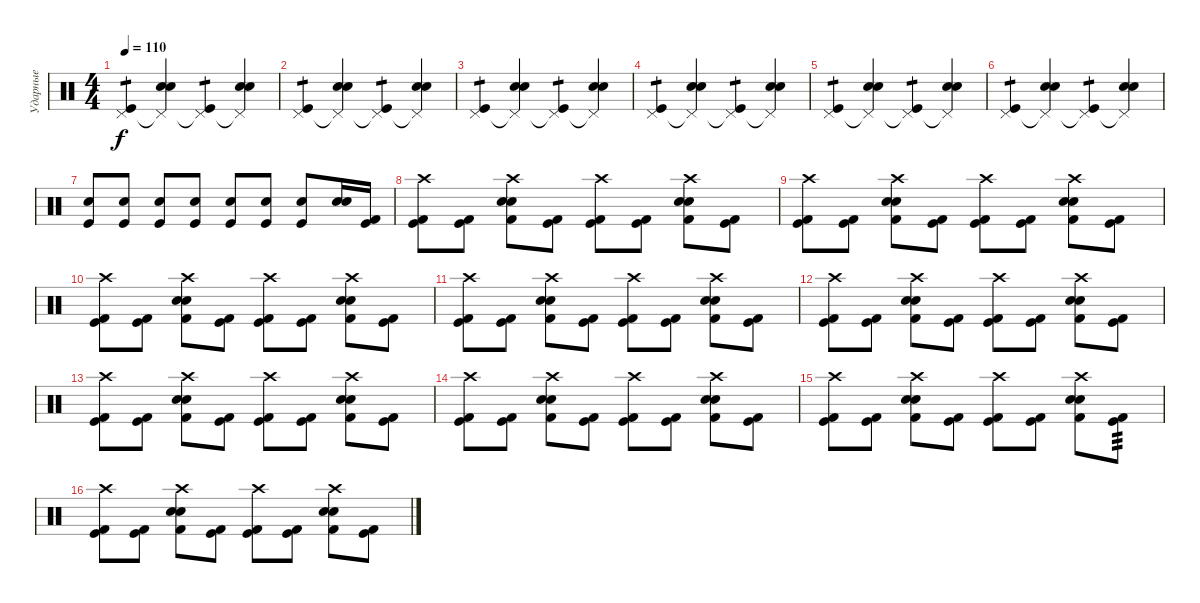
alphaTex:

\track ("Ударные" "Ударные") {instrument percussion}
\staff {score}
\articulation defaults
\ts (4 4)
\tempo 110
\clef neutral
\ks c
("Pedal Hi-Hat (hit)" "Kick (hit)").4{tp 1 dy f} ("Pedal Hi-Hat (hit)"{t} "Electric Snare (hit)" "Snare (hit) 2").4 ("Pedal Hi-Hat (hit)"{t} "Kick (hit)").4{tp 1} ("Pedal Hi-Hat (hit)"{t} "Electric Snare (hit)" "Snare (hit) 2").4 |
("Pedal Hi-Hat (hit)" "Kick (hit)").4{tp 1} ("Pedal Hi-Hat (hit)"{t} "Electric Snare (hit)" "Snare (hit) 2").4 ("Pedal Hi-Hat (hit)"{t} "Kick (hit)").4{tp 1} ("Pedal Hi-Hat (hit)"{t} "Electric Snare (hit)" "Snare (hit) 2").4 |
("Pedal Hi-Hat (hit)" "Kick (hit)").4{tp 1} ("Pedal Hi-Hat (hit)"{t} "Electric Snare (hit)" "Snare (hit) 2").4 ("Pedal Hi-Hat (hit)"{t} "Kick (hit)").4{tp 1} ("Pedal Hi-Hat (hit)"{t} "Electric Snare (hit)" "Snare (hit) 2").4 |
("Pedal Hi-Hat (hit)" "Kick (hit)").4{tp 1} ("Pedal Hi-Hat (hit)"{t} "Electric Snare (hit)" "Snare (hit) 2").4 ("Pedal Hi-Hat (hit)"{t} "Kick (hit)").4{tp 1} ("Pedal Hi-Hat (hit)"{t} "Electric Snare (hit)" "Snare (hit) 2").4 |
("Pedal Hi-Hat (hit)" "Kick (hit)").4{tp 1} ("Pedal Hi-Hat (hit)"{t} "Electric Snare (hit)" "Snare (hit) 2").4 ("Pedal Hi-Hat (hit)"{t} "Kick (hit)").4{tp 1} ("Pedal Hi-Hat (hit)"{t} "Electric Snare (hit)" "Snare (hit) 2").4 |
("Pedal Hi-Hat (hit)" "Kick (hit)").4{tp 1} ("Pedal Hi-Hat (hit)"{t} "Electric Snare (hit)" "Snare (hit) 2").4 ("Pedal Hi-Hat (hit)"{t} "Kick (hit)").4{tp 1} ("Pedal Hi-Hat (hit)"{t} "Electric Snare (hit)" "Snare (hit) 2").4 |
("Electric Snare (hit)" "Kick (hit)").8 ("Electric Snare (hit)" "Kick (hit)").8 ("Electric Snare (hit)" "Kick (hit)").8 ("Electric Snare (hit)" "Kick (hit)").8 ("Electric Snare (hit)" "Kick (hit)").8 ("Electric Snare (hit)" "Kick (hit)").8 ("Electric Snare (hit)" "Kick (hit)").8 ("Snare (hit) 2" "Electric Snare (hit)").16 ("Kick (hit) 2" "Kick (hit)").16 |
("Crash high (hit)" "Kick (hit)" "Kick (hit) 2").8 ("Kick (hit)" "Kick (hit) 2").8 ("Crash high (hit)" "Snare (hit) 2" "Electric Snare (hit)" "Kick (hit) 2").8 ("Kick (hit)" "Kick (hit) 2").8 ("Crash high (hit)" "Kick (hit)" "Kick (hit) 2").8 ("Kick (hit)" "Kick (hit) 2").8 ("Crash high (hit)" "Snare (hit) 2" "Electric Snare (hit)" "Kick (hit) 2").8 ("Kick (hit)" "Kick (hit) 2").8 |
("Crash high (hit)" "Kick (hit)" "Kick (hit) 2").8 ("Kick (hit)" "Kick (hit) 2").8 ("Crash high (hit)" "Snare (hit) 2" "Electric Snare (hit)" "Kick (hit) 2").8 ("Kick (hit)" "Kick (hit) 2").8 ("Crash high (hit)" "Kick (hit)" "Kick (hit) 2").8 ("Kick (hit)" "Kick (hit) 2").8 ("Crash high (hit)" "Snare (hit) 2" "Electric Snare (hit)" "Kick (hit) 2").8 ("Kick (hit)" "Kick (hit) 2").8 |
("Crash high (hit)" "Kick (hit)" "Kick (hit) 2").8 ("Kick (hit)" "Kick (hit) 2").8 ("Crash high (hit)" "Snare (hit) 2" "Electric Snare (hit)" "Kick (hit) 2").8 ("Kick (hit)" "Kick (hit) 2").8 ("Crash high (hit)" "Kick (hit)" "Kick (hit) 2").8 ("Kick (hit)" "Kick (hit) 2").8 ("Crash high (hit)" "Snare (hit) 2" "Electric Snare (hit)" "Kick (hit) 2").8 ("Kick (hit)" "Kick (hit) 2").8 |
("Crash high (hit)" "Kick (hit)" "Kick (hit) 2").8 ("Kick (hit)" "Kick (hit) 2").8 ("Crash high (hit)" "Snare (hit) 2" "Electric Snare (hit)" "Kick (hit) 2").8 ("Kick (hit)" "Kick (hit) 2").8 ("Crash high (hit)" "Kick (hit)" "Kick (hit) 2").8 ("Kick (hit)" "Kick (hit) 2").8 ("Crash high (hit)" "Snare (hit) 2" "Electric Snare (hit)" "Kick (hit) 2").8 ("Kick (hit)" "Kick (hit) 2").8 |
("Crash high (hit)" "Kick (hit)" "Kick (hit) 2").8 ("Kick (hit)" "Kick (hit) 2").8 ("Crash high (hit)" "Snare (hit) 2" "Electric Snare (hit)" "Kick (hit) 2").8 ("Kick (hit)" "Kick (hit) 2").8 ("Crash high (hit)" "Kick (hit)" "Kick (hit) 2").8 ("Kick (hit)" "Kick (hit) 2").8 ("Crash high (hit)" "Snare (hit) 2" "Electric Snare (hit)" "Kick (hit) 2").8 ("Kick (hit)" "Kick (hit) 2").8 |
("Crash high (hit)" "Kick (hit)" "Kick (hit) 2").8 ("Kick (hit)" "Kick (hit) 2").8 ("Crash high (hit)" "Snare (hit) 2" "Electric Snare (hit)" "Kick (hit) 2").8 ("Kick (hit)" "Kick (hit) 2").8 ("Crash high (hit)" "Kick (hit)" "Kick (hit) 2").8 ("Kick (hit)" "Kick (hit) 2").8 ("Crash high (hit)" "Snare (hit) 2" "Electric Snare (hit)" "Kick (hit) 2").8 ("Kick (hit)" "Kick (hit) 2").8 |
("Crash high (hit)" "Kick (hit)" "Kick (hit) 2").8 ("Kick (hit)" "Kick (hit) 2").8 ("Crash high (hit)" "Snare (hit) 2" "Electric Snare (hit)" "Kick (hit) 2").8 ("Kick (hit)" "Kick (hit) 2").8 ("Crash high (hit)" "Kick (hit)" "Kick (hit) 2").8 ("Kick (hit)" "Kick (hit) 2").8 ("Crash high (hit)" "Snare (hit) 2" "Electric Snare (hit)" "Kick (hit) 2").8 ("Kick (hit)" "Kick (hit) 2").8 |
("Crash high (hit)" "Kick (hit)" "Kick (hit) 2").8 ("Kick (hit)" "Kick (hit) 2").8 ("Crash high (hit)" "Snare (hit) 2" "Electric Snare (hit)" "Kick (hit) 2").8 ("Kick (hit)" "Kick (hit) 2").8 ("Crash high (hit)" "Kick (hit)" "Kick (hit) 2").8 ("Kick (hit)" "Kick (hit) 2").8 ("Crash high (hit)" "Snare (hit) 2" "Electric Snare (hit)" "Kick (hit) 2").8 ("Kick (hit)" "Kick (hit) 2").8{tp 3} |
("Crash high (hit)" "Kick (hit)" "Kick (hit) 2").8 ("Kick (hit)" "Kick (hit) 2").8 ("Crash high (hit)" "Snare (hit) 2" "Electric Snare (hit)" "Kick (hit) 2").8 ("Kick (hit)" "Kick (hit) 2").8 ("Crash high (hit)" "Kick (hit)" "Kick (hit) 2").8 ("Kick (hit)" "Kick (hit) 2").8 ("Crash high (hit)" "Snare (hit) 2" "Electric Snare (hit)" "Kick (hit) 2").8 ("Kick (hit)" "Kick (hit) 2").8
